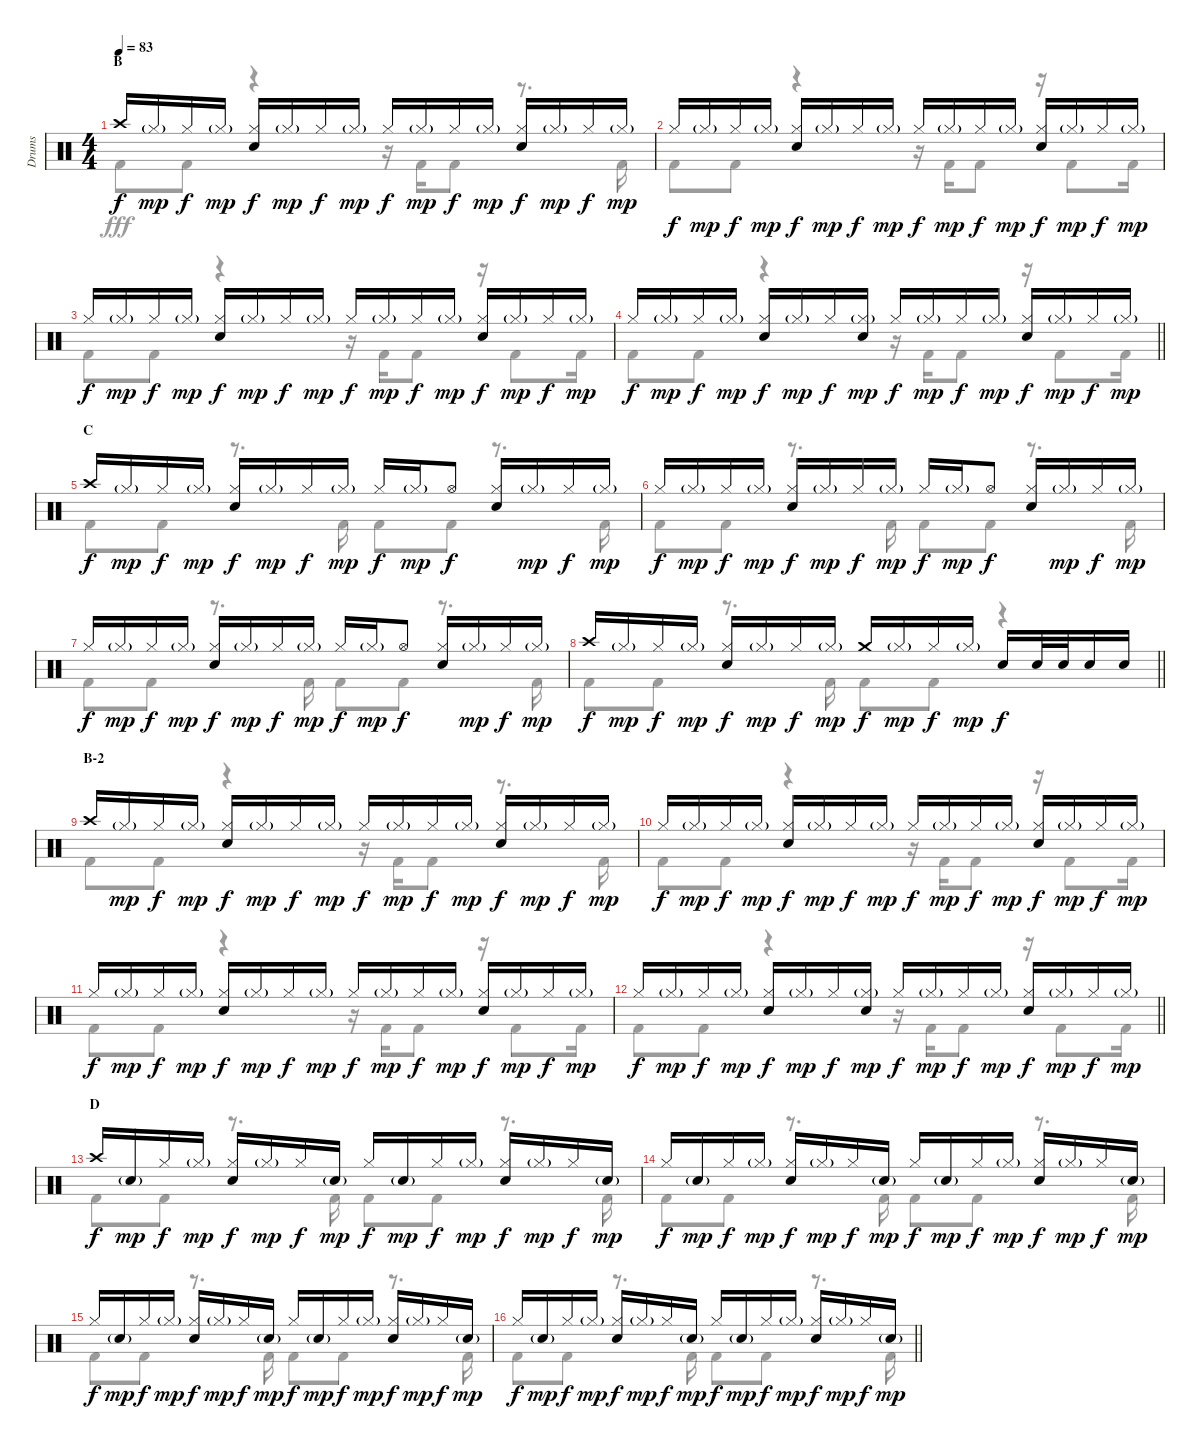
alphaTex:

\track ("Drums" "Drums") {instrument percussion}
\staff {score}
\articulation defaults
\voice
\ts (4 4)
\section ("" "B")
\tempo 83
\clef neutral
\ks c "Crash high (hit)".16{dy f} "Hi-Hat (closed)"{g}.16{dy mp} "Hi-Hat (closed)".16{dy f} "Hi-Hat (closed)"{g}.16{dy mp}
("Hi-Hat (closed)" "Snare (hit) 2").16{dy f} "Hi-Hat (closed)"{g}.16{dy mp} "Hi-Hat (closed)".16{dy f} "Hi-Hat (closed)"{g}.16{dy mp} "Hi-Hat (closed)".16{dy f} "Hi-Hat (closed)"{g}.16{dy mp} "Hi-Hat (closed)".16{dy f} "Hi-Hat (closed)"{g}.16{dy mp} ("Hi-Hat (closed)" "Snare (hit) 2").16{dy f} "Hi-Hat (closed)"{g}.16{dy mp} "Hi-Hat (closed)".16{dy f} "Hi-Hat (closed)"{g}.16{dy mp} |
"Hi-Hat (closed)".16{dy f} "Hi-Hat (closed)"{g}.16{dy mp} "Hi-Hat (closed)".16{dy f} "Hi-Hat (closed)"{g}.16{dy mp} ("Hi-Hat (closed)" "Snare (hit) 2").16{dy f} "Hi-Hat (closed)"{g}.16{dy mp} "Hi-Hat (closed)".16{dy f} "Hi-Hat (closed)"{g}.16{dy mp} "Hi-Hat (closed)".16{dy f} "Hi-Hat (closed)"{g}.16{dy mp} "Hi-Hat (closed)".16{dy f} "Hi-Hat (closed)"{g}.16{dy mp} ("Hi-Hat (closed)" "Snare (hit) 2").16{dy f} "Hi-Hat (closed)"{g}.16{dy mp} "Hi-Hat (closed)".16{dy f} "Hi-Hat (closed)"{g}.16{dy mp} |
"Hi-Hat (closed)".16{dy f} "Hi-Hat (closed)"{g}.16{dy mp} "Hi-Hat (closed)".16{dy f} "Hi-Hat (closed)"{g}.16{dy mp} ("Hi-Hat (closed)" "Snare (hit) 2").16{dy f} "Hi-Hat (closed)"{g}.16{dy mp} "Hi-Hat (closed)".16{dy f} "Hi-Hat (closed)"{g}.16{dy mp} "Hi-Hat (closed)".16{dy f} "Hi-Hat (closed)"{g}.16{dy mp} "Hi-Hat (closed)".16{dy f} "Hi-Hat (closed)"{g}.16{dy mp} ("Hi-Hat (closed)" "Snare (hit) 2").16{dy f} "Hi-Hat (closed)"{g}.16{dy mp} "Hi-Hat (closed)".16{dy f} "Hi-Hat (closed)"{g}.16{dy mp} |
\barLineRight lightlight "Hi-Hat (closed)".16{dy f} "Hi-Hat (closed)"{g}.16{dy mp} "Hi-Hat (closed)".16{dy f} "Hi-Hat (closed)"{g}.16{dy mp}
("Hi-Hat (closed)" "Snare (hit) 2").16{dy f} "Hi-Hat (closed)"{g}.16{dy mp} "Hi-Hat (closed)".16{dy f} ("Hi-Hat (closed)"{g} "Snare (hit) 2").16{dy mp} "Hi-Hat (closed)".16{dy f} "Hi-Hat (closed)"{g}.16{dy mp} "Hi-Hat (closed)".16{dy f} "Hi-Hat (closed)"{g}.16{dy mp} ("Hi-Hat (closed)" "Snare (hit) 2").16{dy f} "Hi-Hat (closed)"{g}.16{dy mp} "Hi-Hat (closed)".16{dy f} "Hi-Hat (closed)"{g}.16{dy mp} |
\section ("" "C")
"Crash high (hit)".16{dy f} "Hi-Hat (closed)"{g}.16{dy mp} "Hi-Hat (closed)".16{dy f} "Hi-Hat (closed)"{g}.16{dy mp} ("Hi-Hat (closed)" "Snare (hit) 2").16{dy f} "Hi-Hat (closed)"{g}.16{dy mp} "Hi-Hat (closed)".16{dy f} "Hi-Hat (closed)"{g}.16{dy mp} "Hi-Hat (closed)".16{dy f} "Hi-Hat (closed)"{g}.16{dy mp} "Hi-Hat (open)".8{dy f} ("Hi-Hat (closed)" "Snare (hit) 2").16 "Hi-Hat (closed)"{g}.16{dy mp} "Hi-Hat (closed)".16{dy f} "Hi-Hat (closed)"{g}.16{dy mp} |
"Hi-Hat (closed)".16{dy f} "Hi-Hat (closed)"{g}.16{dy mp} "Hi-Hat (closed)".16{dy f} "Hi-Hat (closed)"{g}.16{dy mp} ("Hi-Hat (closed)" "Snare (hit) 2").16{dy f} "Hi-Hat (closed)"{g}.16{dy mp} "Hi-Hat (closed)".16{dy f} "Hi-Hat (closed)"{g}.16{dy mp} "Hi-Hat (closed)".16{dy f} "Hi-Hat (closed)"{g}.16{dy mp} "Hi-Hat (open)".8{dy f} ("Hi-Hat (closed)" "Snare (hit) 2").16 "Hi-Hat (closed)"{g}.16{dy mp} "Hi-Hat (closed)".16{dy f} "Hi-Hat (closed)"{g}.16{dy mp} |
"Hi-Hat (closed)".16{dy f} "Hi-Hat (closed)"{g}.16{dy mp} "Hi-Hat (closed)".16{dy f} "Hi-Hat (closed)"{g}.16{dy mp} ("Hi-Hat (closed)" "Snare (hit) 2").16{dy f} "Hi-Hat (closed)"{g}.16{dy mp} "Hi-Hat (closed)".16{dy f} "Hi-Hat (closed)"{g}.16{dy mp} "Hi-Hat (closed)".16{dy f} "Hi-Hat (closed)"{g}.16{dy mp} "Hi-Hat (open)".8{dy f} ("Hi-Hat (closed)" "Snare (hit) 2").16 "Hi-Hat (closed)"{g}.16{dy mp} "Hi-Hat (closed)".16{dy f} "Hi-Hat (closed)"{g}.16{dy mp} |
\barLineRight lightlight "Crash high (hit)".16{dy f} "Hi-Hat (closed)"{g}.16{dy mp} "Hi-Hat (closed)".16{dy f} "Hi-Hat (closed)"{g}.16{dy mp}
("Hi-Hat (closed)" "Snare (hit) 2").16{dy f} "Hi-Hat (closed)"{g}.16{dy mp} "Hi-Hat (closed)".16{dy f} "Hi-Hat (closed)"{g}.16{dy mp} "Crash medium (hit)".16{dy f} "Hi-Hat (closed)"{g}.16{dy mp} "Hi-Hat (closed)".16{dy f} "Hi-Hat (closed)"{g}.16{dy mp} "Snare (hit) 2".16{dy f} "Snare (hit) 2".32 "Snare (hit) 2".32 "Snare (hit) 2".16 "Snare (hit) 2".16 |
\section ("" "B-2")
"Crash high (hit)".16 "Hi-Hat (closed)"{g}.16{dy mp} "Hi-Hat (closed)".16{dy f} "Hi-Hat (closed)"{g}.16{dy mp} ("Hi-Hat (closed)" "Snare (hit) 2").16{dy f} "Hi-Hat (closed)"{g}.16{dy mp} "Hi-Hat (closed)".16{dy f} "Hi-Hat (closed)"{g}.16{dy mp} "Hi-Hat (closed)".16{dy f} "Hi-Hat (closed)"{g}.16{dy mp} "Hi-Hat (closed)".16{dy f} "Hi-Hat (closed)"{g}.16{dy mp} ("Hi-Hat (closed)" "Snare (hit) 2").16{dy f} "Hi-Hat (closed)"{g}.16{dy mp} "Hi-Hat (closed)".16{dy f} "Hi-Hat (closed)"{g}.16{dy mp} |
"Hi-Hat (closed)".16{dy f} "Hi-Hat (closed)"{g}.16{dy mp} "Hi-Hat (closed)".16{dy f} "Hi-Hat (closed)"{g}.16{dy mp} ("Hi-Hat (closed)" "Snare (hit) 2").16{dy f} "Hi-Hat (closed)"{g}.16{dy mp} "Hi-Hat (closed)".16{dy f} "Hi-Hat (closed)"{g}.16{dy mp} "Hi-Hat (closed)".16{dy f} "Hi-Hat (closed)"{g}.16{dy mp} "Hi-Hat (closed)".16{dy f} "Hi-Hat (closed)"{g}.16{dy mp} ("Hi-Hat (closed)" "Snare (hit) 2").16{dy f} "Hi-Hat (closed)"{g}.16{dy mp} "Hi-Hat (closed)".16{dy f} "Hi-Hat (closed)"{g}.16{dy mp} |
"Hi-Hat (closed)".16{dy f} "Hi-Hat (closed)"{g}.16{dy mp} "Hi-Hat (closed)".16{dy f} "Hi-Hat (closed)"{g}.16{dy mp} ("Hi-Hat (closed)" "Snare (hit) 2").16{dy f} "Hi-Hat (closed)"{g}.16{dy mp} "Hi-Hat (closed)".16{dy f} "Hi-Hat (closed)"{g}.16{dy mp} "Hi-Hat (closed)".16{dy f} "Hi-Hat (closed)"{g}.16{dy mp} "Hi-Hat (closed)".16{dy f} "Hi-Hat (closed)"{g}.16{dy mp} ("Hi-Hat (closed)" "Snare (hit) 2").16{dy f} "Hi-Hat (closed)"{g}.16{dy mp} "Hi-Hat (closed)".16{dy f} "Hi-Hat (closed)"{g}.16{dy mp} |
\barLineRight lightlight "Hi-Hat (closed)".16{dy f} "Hi-Hat (closed)"{g}.16{dy mp} "Hi-Hat (closed)".16{dy f} "Hi-Hat (closed)"{g}.16{dy mp}
("Hi-Hat (closed)" "Snare (hit) 2").16{dy f} "Hi-Hat (closed)"{g}.16{dy mp} "Hi-Hat (closed)".16{dy f} ("Hi-Hat (closed)"{g} "Snare (hit) 2").16{dy mp} "Hi-Hat (closed)".16{dy f} "Hi-Hat (closed)"{g}.16{dy mp} "Hi-Hat (closed)".16{dy f} "Hi-Hat (closed)"{g}.16{dy mp} ("Hi-Hat (closed)" "Snare (hit) 2").16{dy f} "Hi-Hat (closed)"{g}.16{dy mp} "Hi-Hat (closed)".16{dy f} "Hi-Hat (closed)"{g}.16{dy mp} |
\section ("" "D")
"Crash high (hit)".16{dy f} "Snare (hit) 2"{g}.16{dy mp} "Hi-Hat (closed)".16{dy f} "Hi-Hat (closed)"{g}.16{dy mp} ("Hi-Hat (closed)" "Snare (hit) 2").16{dy f} "Hi-Hat (closed)"{g}.16{dy mp} "Hi-Hat (closed)".16{dy f} "Snare (hit) 2"{g}.16{dy mp} "Hi-Hat (closed)".16{dy f} "Snare (hit) 2"{g}.16{dy mp} "Hi-Hat (closed)".16{dy f} "Hi-Hat (closed)"{g}.16{dy mp} ("Hi-Hat (closed)" "Snare (hit) 2").16{dy f} "Hi-Hat (closed)"{g}.16{dy mp} "Hi-Hat (closed)".16{dy f} "Snare (hit) 2"{g}.16{dy mp} |
"Hi-Hat (closed)".16{dy f} "Snare (hit) 2"{g}.16{dy mp} "Hi-Hat (closed)".16{dy f} "Hi-Hat (closed)"{g}.16{dy mp} ("Hi-Hat (closed)" "Snare (hit) 2").16{dy f} "Hi-Hat (closed)"{g}.16{dy mp} "Hi-Hat (closed)".16{dy f} "Snare (hit) 2"{g}.16{dy mp} "Hi-Hat (closed)".16{dy f} "Snare (hit) 2"{g}.16{dy mp} "Hi-Hat (closed)".16{dy f} "Hi-Hat (closed)"{g}.16{dy mp} ("Hi-Hat (closed)" "Snare (hit) 2").16{dy f} "Hi-Hat (closed)"{g}.16{dy mp} "Hi-Hat (closed)".16{dy f} "Snare (hit) 2"{g}.16{dy mp} |
"Hi-Hat (closed)".16{dy f} "Snare (hit) 2"{g}.16{dy mp} "Hi-Hat (closed)".16{dy f} "Hi-Hat (closed)"{g}.16{dy mp} ("Hi-Hat (closed)" "Snare (hit) 2").16{dy f} "Hi-Hat (closed)"{g}.16{dy mp} "Hi-Hat (closed)".16{dy f} "Snare (hit) 2"{g}.16{dy mp} "Hi-Hat (closed)".16{dy f} "Snare (hit) 2"{g}.16{dy mp} "Hi-Hat (closed)".16{dy f} "Hi-Hat (closed)"{g}.16{dy mp} ("Hi-Hat (closed)" "Snare (hit) 2").16{dy f} "Hi-Hat (closed)"{g}.16{dy mp} "Hi-Hat (closed)".16{dy f} "Snare (hit) 2"{g}.16{dy mp} |
\barLineRight lightlight "Hi-Hat (closed)".16{dy f} "Snare (hit) 2"{g}.16{dy mp} "Hi-Hat (closed)".16{dy f} "Hi-Hat (closed)"{g}.16{dy mp}
("Hi-Hat (closed)" "Snare (hit) 2").16{dy f} "Hi-Hat (closed)"{g}.16{dy mp} "Hi-Hat (closed)".16{dy f} "Snare (hit) 2"{g}.16{dy mp} "Hi-Hat (closed)".16{dy f} "Snare (hit) 2"{g}.16{dy mp} "Hi-Hat (closed)".16{dy f} "Hi-Hat (closed)"{g}.16{dy mp} ("Hi-Hat (closed)" "Snare (hit) 2").16{dy f} "Hi-Hat (closed)"{g}.16{dy mp} "Hi-Hat (closed)".16{dy f} "Snare (hit) 2"{g}.16{dy mp}
\voice
\clef neutral
\ottava regular
\simile none
\ks c "Kick (hit) 2".8{dy fff} "Kick (hit) 2".8
r.4 r.16 "Kick (hit) 2".16 "Kick (hit) 2".8 r.8{d} "Kick (hit) 2".16 |
"Kick (hit) 2".8 "Kick (hit) 2".8 r.4 r.16 "Kick (hit) 2".16 "Kick (hit) 2".8 r.16 "Kick (hit) 2".8 "Kick (hit) 2".16 |
"Kick (hit) 2".8 "Kick (hit) 2".8 r.4 r.16 "Kick (hit) 2".16 "Kick (hit) 2".8 r.16 "Kick (hit) 2".8 "Kick (hit) 2".16 |
\barLineRight lightlight "Kick (hit) 2".8 "Kick (hit) 2".8
r.4 r.16 "Kick (hit) 2".16 "Kick (hit) 2".8 r.16 "Kick (hit) 2".8 "Kick (hit) 2".16 |
"Kick (hit) 2".8 "Kick (hit) 2".8 r.8{d} "Kick (hit) 2".16 "Kick (hit) 2".8 "Kick (hit) 2".8 r.8{d} "Kick (hit) 2".16 |
"Kick (hit) 2".8 "Kick (hit) 2".8 r.8{d} "Kick (hit) 2".16 "Kick (hit) 2".8 "Kick (hit) 2".8 r.8{d} "Kick (hit) 2".16 |
"Kick (hit) 2".8 "Kick (hit) 2".8 r.8{d} "Kick (hit) 2".16 "Kick (hit) 2".8 "Kick (hit) 2".8 r.8{d} "Kick (hit) 2".16 |
\barLineRight lightlight "Kick (hit) 2".8 "Kick (hit) 2".8
r.8{d} "Kick (hit) 2".16 "Kick (hit) 2".8 "Kick (hit) 2".8 r.4 |
"Kick (hit) 2".8 "Kick (hit) 2".8 r.4 r.16 "Kick (hit) 2".16 "Kick (hit) 2".8 r.8{d} "Kick (hit) 2".16 |
"Kick (hit) 2".8 "Kick (hit) 2".8 r.4 r.16 "Kick (hit) 2".16 "Kick (hit) 2".8 r.16 "Kick (hit) 2".8 "Kick (hit) 2".16 |
"Kick (hit) 2".8 "Kick (hit) 2".8 r.4 r.16 "Kick (hit) 2".16 "Kick (hit) 2".8 r.16 "Kick (hit) 2".8 "Kick (hit) 2".16 |
\barLineRight lightlight "Kick (hit) 2".8 "Kick (hit) 2".8
r.4 r.16 "Kick (hit) 2".16 "Kick (hit) 2".8 r.16 "Kick (hit) 2".8 "Kick (hit) 2".16 |
"Kick (hit) 2".8 "Kick (hit) 2".8 r.8{d} "Kick (hit) 2".16 "Kick (hit) 2".8 "Kick (hit) 2".8 r.8{d} "Kick (hit) 2".16 |
"Kick (hit) 2".8 "Kick (hit) 2".8 r.8{d} "Kick (hit) 2".16 "Kick (hit) 2".8 "Kick (hit) 2".8 r.8{d} "Kick (hit) 2".16 |
"Kick (hit) 2".8 "Kick (hit) 2".8 r.8{d} "Kick (hit) 2".16 "Kick (hit) 2".8 "Kick (hit) 2".8 r.8{d} "Kick (hit) 2".16 |
\barLineRight lightlight "Kick (hit) 2".8 "Kick (hit) 2".8
r.8{d} "Kick (hit) 2".16 "Kick (hit) 2".8 "Kick (hit) 2".8 r.8{d} "Kick (hit) 2".16
